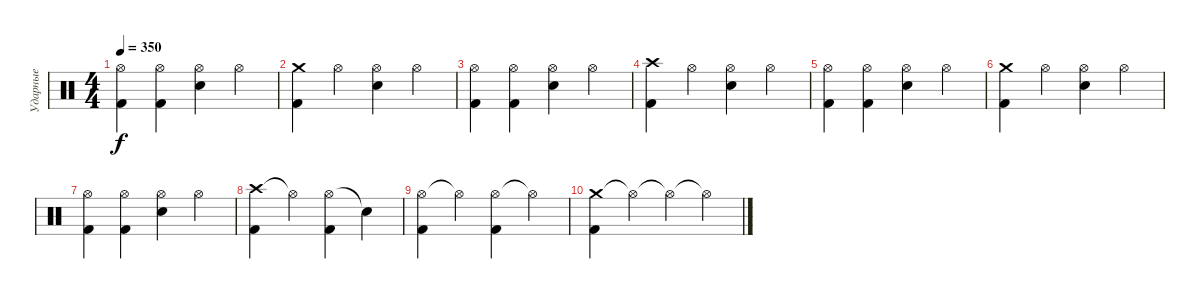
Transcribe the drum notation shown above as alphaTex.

\track ("Ударные" "Ударные") {instrument percussion}
\staff {score}
\articulation defaults
\ts (4 4)
\tempo 350
\clef neutral
\ks c
("Hi-Hat (open)" "Kick (hit) 2").4{dy f} ("Hi-Hat (open)" "Kick (hit) 2").4 ("Hi-Hat (open)" "Electric Snare (hit)").4 "Hi-Hat (open)".4 |
("Crash medium (hit)" "Kick (hit) 2").4 "Hi-Hat (open)".4 ("Hi-Hat (open)" "Electric Snare (hit)").4 "Hi-Hat (open)".4 |
("Hi-Hat (open)" "Kick (hit) 2").4 ("Hi-Hat (open)" "Kick (hit) 2").4 ("Hi-Hat (open)" "Electric Snare (hit)").4 "Hi-Hat (open)".4 |
("Crash high (hit)" "Kick (hit) 2").4 "Hi-Hat (open)".4 ("Hi-Hat (open)" "Electric Snare (hit)").4 "Hi-Hat (open)".4 |
("Hi-Hat (open)" "Kick (hit) 2").4 ("Hi-Hat (open)" "Kick (hit) 2").4 ("Hi-Hat (open)" "Electric Snare (hit)").4 "Hi-Hat (open)".4 |
("Crash medium (hit)" "Kick (hit) 2").4 "Hi-Hat (open)".4 ("Hi-Hat (open)" "Electric Snare (hit)").4 "Hi-Hat (open)".4 |
("Hi-Hat (open)" "Kick (hit) 2").4 ("Hi-Hat (open)" "Kick (hit) 2").4 ("Hi-Hat (open)" "Electric Snare (hit)").4 "Hi-Hat (open)".4 |
("Crash high (hit)" "Kick (hit) 2").4 "Hi-Hat (open)"{t}.4 ("Hi-Hat (open)" "Kick (hit) 2").4 "Snare (hit)"{t}.4 |
("Hi-Hat (open)" "Kick (hit) 2").4 "Hi-Hat (open)"{t}.4 ("Hi-Hat (open)" "Kick (hit) 2").4 "Hi-Hat (open)"{t}.4 |
("Crash medium (hit)" "Kick (hit) 2").4 "Hi-Hat (open)"{t}.4 "Hi-Hat (open)"{t}.4 "Hi-Hat (open)"{t}.4
